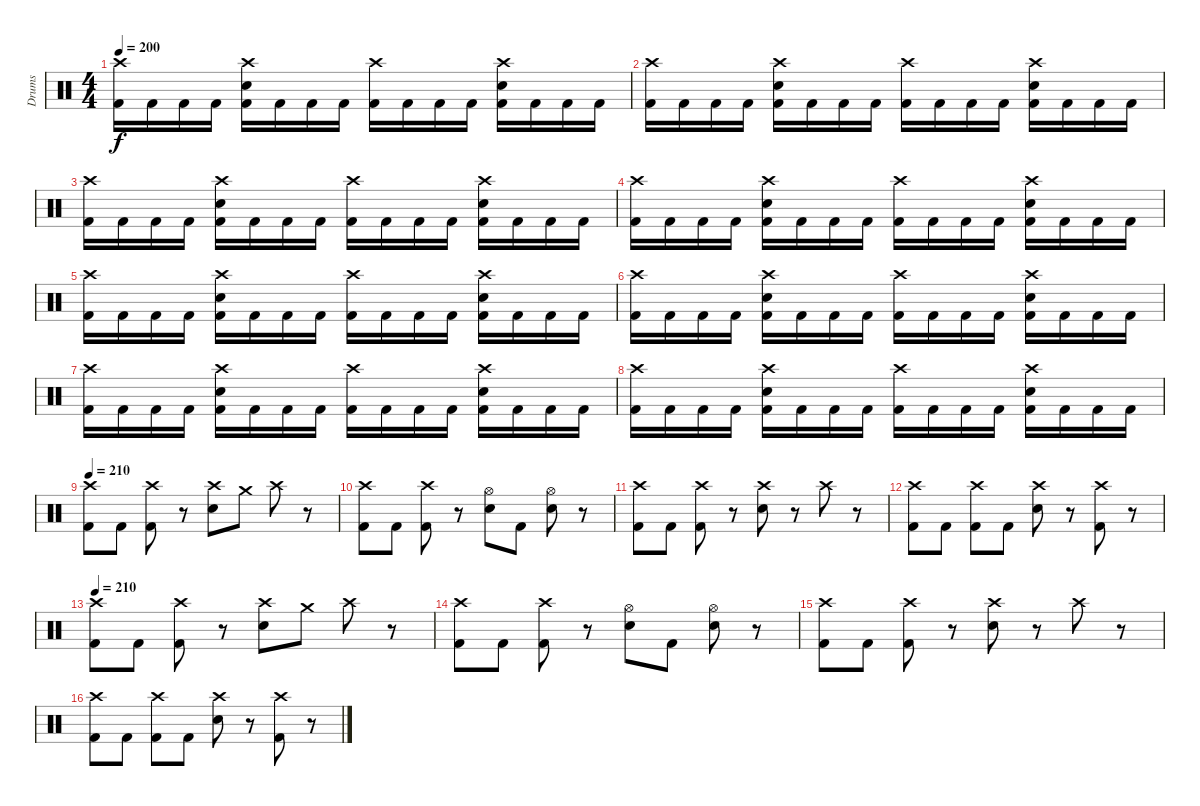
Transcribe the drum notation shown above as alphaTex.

\track ("Drums" "Drums") {instrument percussion}
\staff {score}
\articulation defaults
\ts (4 4)
\tempo 200
\clef neutral
\ks c
("Crash high (hit)" "Kick (hit) 2").16{dy f} "Kick (hit) 2".16 "Kick (hit) 2".16 "Kick (hit) 2".16 ("Crash high (hit)" "Snare (hit) 2" "Kick (hit) 2").16 "Kick (hit) 2".16 "Kick (hit) 2".16 "Kick (hit) 2".16 ("Crash high (hit)" "Kick (hit) 2").16 "Kick (hit) 2".16 "Kick (hit) 2".16 "Kick (hit) 2".16 ("Crash high (hit)" "Snare (hit) 2" "Kick (hit) 2").16 "Kick (hit) 2".16 "Kick (hit) 2".16 "Kick (hit) 2".16 |
("Crash high (hit)" "Kick (hit) 2").16 "Kick (hit) 2".16 "Kick (hit) 2".16 "Kick (hit) 2".16 ("Crash high (hit)" "Snare (hit) 2" "Kick (hit) 2").16 "Kick (hit) 2".16 "Kick (hit) 2".16 "Kick (hit) 2".16 ("Crash high (hit)" "Kick (hit) 2").16 "Kick (hit) 2".16 "Kick (hit) 2".16 "Kick (hit) 2".16 ("Crash high (hit)" "Snare (hit) 2" "Kick (hit) 2").16 "Kick (hit) 2".16 "Kick (hit) 2".16 "Kick (hit) 2".16 |
("Crash high (hit)" "Kick (hit) 2").16 "Kick (hit) 2".16 "Kick (hit) 2".16 "Kick (hit) 2".16 ("Crash high (hit)" "Snare (hit) 2" "Kick (hit) 2").16 "Kick (hit) 2".16 "Kick (hit) 2".16 "Kick (hit) 2".16 ("Crash high (hit)" "Kick (hit) 2").16 "Kick (hit) 2".16 "Kick (hit) 2".16 "Kick (hit) 2".16 ("Crash high (hit)" "Snare (hit) 2" "Kick (hit) 2").16 "Kick (hit) 2".16 "Kick (hit) 2".16 "Kick (hit) 2".16 |
("Crash high (hit)" "Kick (hit) 2").16 "Kick (hit) 2".16 "Kick (hit) 2".16 "Kick (hit) 2".16 ("Crash high (hit)" "Snare (hit) 2" "Kick (hit) 2").16 "Kick (hit) 2".16 "Kick (hit) 2".16 "Kick (hit) 2".16 ("Crash high (hit)" "Kick (hit) 2").16 "Kick (hit) 2".16 "Kick (hit) 2".16 "Kick (hit) 2".16 ("Crash high (hit)" "Snare (hit) 2" "Kick (hit) 2").16 "Kick (hit) 2".16 "Kick (hit) 2".16 "Kick (hit) 2".16 |
("Crash high (hit)" "Kick (hit) 2").16 "Kick (hit) 2".16 "Kick (hit) 2".16 "Kick (hit) 2".16 ("Crash high (hit)" "Snare (hit) 2" "Kick (hit) 2").16 "Kick (hit) 2".16 "Kick (hit) 2".16 "Kick (hit) 2".16 ("Crash high (hit)" "Kick (hit) 2").16 "Kick (hit) 2".16 "Kick (hit) 2".16 "Kick (hit) 2".16 ("Crash high (hit)" "Snare (hit) 2" "Kick (hit) 2").16 "Kick (hit) 2".16 "Kick (hit) 2".16 "Kick (hit) 2".16 |
("Crash high (hit)" "Kick (hit) 2").16 "Kick (hit) 2".16 "Kick (hit) 2".16 "Kick (hit) 2".16 ("Crash high (hit)" "Snare (hit) 2" "Kick (hit) 2").16 "Kick (hit) 2".16 "Kick (hit) 2".16 "Kick (hit) 2".16 ("Crash high (hit)" "Kick (hit) 2").16 "Kick (hit) 2".16 "Kick (hit) 2".16 "Kick (hit) 2".16 ("Crash high (hit)" "Snare (hit) 2" "Kick (hit) 2").16 "Kick (hit) 2".16 "Kick (hit) 2".16 "Kick (hit) 2".16 |
("Crash high (hit)" "Kick (hit) 2").16 "Kick (hit) 2".16 "Kick (hit) 2".16 "Kick (hit) 2".16 ("Crash high (hit)" "Snare (hit) 2" "Kick (hit) 2").16 "Kick (hit) 2".16 "Kick (hit) 2".16 "Kick (hit) 2".16 ("Crash high (hit)" "Kick (hit) 2").16 "Kick (hit) 2".16 "Kick (hit) 2".16 "Kick (hit) 2".16 ("Crash high (hit)" "Snare (hit) 2" "Kick (hit) 2").16 "Kick (hit) 2".16 "Kick (hit) 2".16 "Kick (hit) 2".16 |
("Crash high (hit)" "Kick (hit) 2").16 "Kick (hit) 2".16 "Kick (hit) 2".16 "Kick (hit) 2".16 ("Crash high (hit)" "Snare (hit) 2" "Kick (hit) 2").16 "Kick (hit) 2".16 "Kick (hit) 2".16 "Kick (hit) 2".16 ("Crash high (hit)" "Kick (hit) 2").16 "Kick (hit) 2".16 "Kick (hit) 2".16 "Kick (hit) 2".16 ("Crash high (hit)" "Snare (hit) 2" "Kick (hit) 2").16 "Kick (hit) 2".16 "Kick (hit) 2".16 "Kick (hit) 2".16 |
\tempo 210
("Crash high (hit)" "Kick (hit) 2").8 "Kick (hit) 2".8 ("Crash high (hit)" "Kick (hit) 2").8 r.8 ("Crash high (hit)" "Snare (hit) 2").8 "Crash medium (hit)".8 "Crash high (hit)".8 r.8 |
("Crash high (hit)" "Kick (hit) 2").8 "Kick (hit) 2".8 ("Crash high (hit)" "Kick (hit) 2").8 r.8 ("Hi-Hat (open)" "Snare (hit) 2").8 "Kick (hit) 2".8 ("Hi-Hat (open)" "Snare (hit) 2").8 r.8 |
("Crash high (hit)" "Kick (hit) 2").8 "Kick (hit) 2".8 ("Crash high (hit)" "Kick (hit) 2").8 r.8 ("Crash high (hit)" "Snare (hit) 2").8 r.8 "Crash high (hit)".8 r.8 |
("Crash high (hit)" "Kick (hit) 2").8 "Kick (hit) 2".8 ("Crash high (hit)" "Kick (hit) 2").8 "Kick (hit) 2".8 ("Crash high (hit)" "Snare (hit) 2").8 r.8 ("Crash high (hit)" "Kick (hit) 2").8 r.8 |
\tempo 210
("Crash high (hit)" "Kick (hit) 2").8 "Kick (hit) 2".8 ("Crash high (hit)" "Kick (hit) 2").8 r.8 ("Crash high (hit)" "Snare (hit) 2").8 "Crash medium (hit)".8 "Crash high (hit)".8 r.8 |
("Crash high (hit)" "Kick (hit) 2").8 "Kick (hit) 2".8 ("Crash high (hit)" "Kick (hit) 2").8 r.8 ("Hi-Hat (open)" "Snare (hit) 2").8 "Kick (hit) 2".8 ("Hi-Hat (open)" "Snare (hit) 2").8 r.8 |
("Crash high (hit)" "Kick (hit) 2").8 "Kick (hit) 2".8 ("Crash high (hit)" "Kick (hit) 2").8 r.8 ("Crash high (hit)" "Snare (hit) 2").8 r.8 "Crash high (hit)".8 r.8 |
("Crash high (hit)" "Kick (hit) 2").8 "Kick (hit) 2".8 ("Crash high (hit)" "Kick (hit) 2").8 "Kick (hit) 2".8 ("Crash high (hit)" "Snare (hit) 2").8 r.8 ("Crash high (hit)" "Kick (hit) 2").8 r.8
